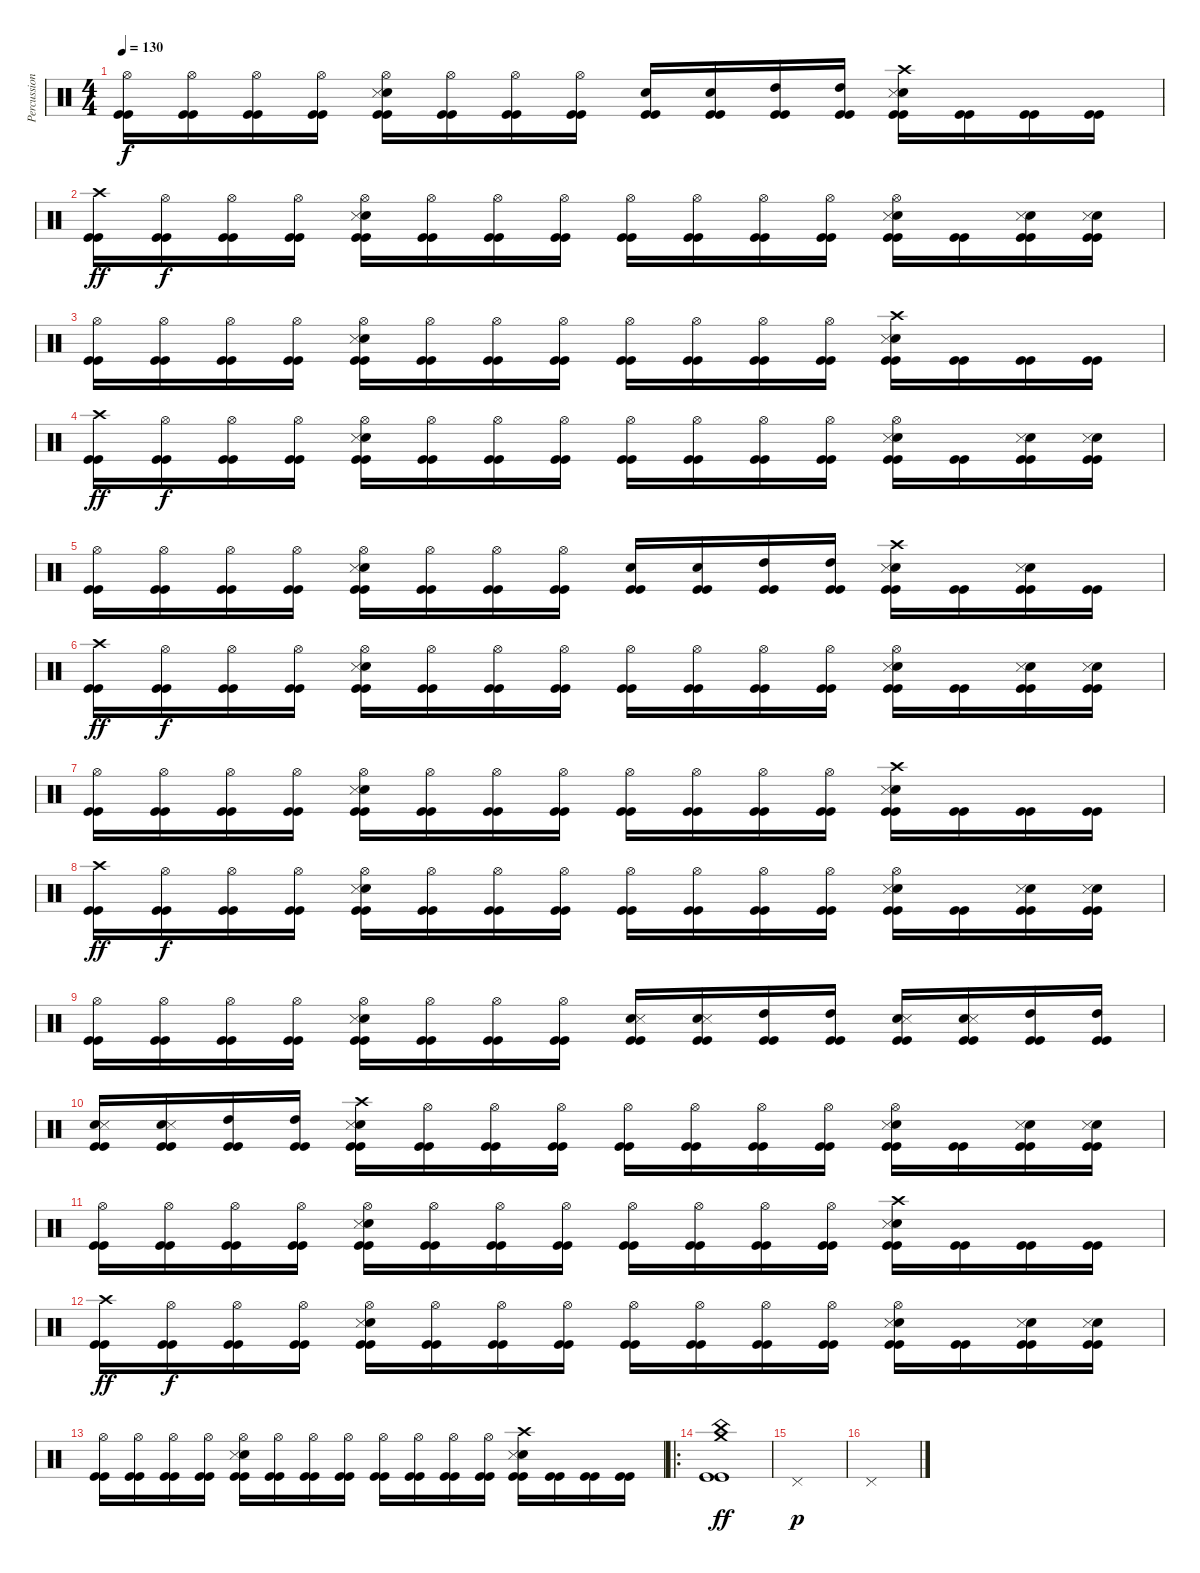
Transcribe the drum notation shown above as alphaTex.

\track ("Percussion" "Percussion") {instrument percussion}
\staff {score}
\articulation defaults
\ts (4 4)
\tempo 130
\clef neutral
\ks c
("Hi-Hat (open)" "Kick (hit)" "Kick (hit)").16{dy f} ("Hi-Hat (open)" "Kick (hit)" "Kick (hit)").16 ("Hi-Hat (open)" "Kick (hit)" "Kick (hit)").16 ("Hi-Hat (open)" "Kick (hit)" "Kick (hit)").16 ("Snare (hit) 2" "Snare (side stick) 3" "Hi-Hat (open)" "Kick (hit)" "Kick (hit)").16 ("Hi-Hat (open)" "Kick (hit)" "Kick (hit)").16 ("Hi-Hat (open)" "Kick (hit)" "Kick (hit)").16 ("Hi-Hat (open)" "Kick (hit)" "Kick (hit)").16 ("Snare (hit) 2" "Kick (hit)" "Kick (hit)").16 ("Snare (hit) 2" "Kick (hit)" "Kick (hit)").16 ("High Tom (hit)" "Kick (hit)" "Kick (hit)").16 ("High Tom (hit)" "Kick (hit)" "Kick (hit)").16 ("Snare (hit) 2" "Snare (side stick) 3" "Crash high (hit)" "Kick (hit)" "Kick (hit)").16 ("Kick (hit)" "Kick (hit)").16 ("Kick (hit)" "Kick (hit)").16 ("Kick (hit)" "Kick (hit)").16 |
("Crash high (hit)" "Kick (hit)" "Kick (hit)").16{dy ff} ("Hi-Hat (open)" "Kick (hit)" "Kick (hit)").16{dy f} ("Hi-Hat (open)" "Kick (hit)" "Kick (hit)").16 ("Hi-Hat (open)" "Kick (hit)" "Kick (hit)").16 ("Snare (hit) 2" "Snare (side stick) 3" "Hi-Hat (open)" "Kick (hit)" "Kick (hit)").16 ("Hi-Hat (open)" "Kick (hit)" "Kick (hit)").16 ("Hi-Hat (open)" "Kick (hit)" "Kick (hit)").16 ("Hi-Hat (open)" "Kick (hit)" "Kick (hit)").16 ("Hi-Hat (open)" "Kick (hit)" "Kick (hit)").16 ("Hi-Hat (open)" "Kick (hit)" "Kick (hit)").16 ("Hi-Hat (open)" "Kick (hit)" "Kick (hit)").16 ("Hi-Hat (open)" "Kick (hit)" "Kick (hit)").16 ("Snare (hit) 2" "Snare (side stick) 3" "Hi-Hat (open)" "Kick (hit)" "Kick (hit)").16 ("Kick (hit)" "Kick (hit)").16 ("Snare (hit) 2" "Snare (side stick) 3" "Kick (hit)" "Kick (hit)").16 ("Snare (hit) 2" "Snare (side stick) 3" "Kick (hit)" "Kick (hit)").16 |
("Hi-Hat (open)" "Kick (hit)" "Kick (hit)").16 ("Hi-Hat (open)" "Kick (hit)" "Kick (hit)").16 ("Hi-Hat (open)" "Kick (hit)" "Kick (hit)").16 ("Hi-Hat (open)" "Kick (hit)" "Kick (hit)").16 ("Snare (hit) 2" "Snare (side stick) 3" "Hi-Hat (open)" "Kick (hit)" "Kick (hit)").16 ("Hi-Hat (open)" "Kick (hit)" "Kick (hit)").16 ("Hi-Hat (open)" "Kick (hit)" "Kick (hit)").16 ("Hi-Hat (open)" "Kick (hit)" "Kick (hit)").16 ("Hi-Hat (open)" "Kick (hit)" "Kick (hit)").16 ("Hi-Hat (open)" "Kick (hit)" "Kick (hit)").16 ("Hi-Hat (open)" "Kick (hit)" "Kick (hit)").16 ("Hi-Hat (open)" "Kick (hit)" "Kick (hit)").16 ("Snare (hit) 2" "Snare (side stick) 3" "Crash high (hit)" "Kick (hit)" "Kick (hit)").16 ("Kick (hit)" "Kick (hit)").16 ("Kick (hit)" "Kick (hit)").16 ("Kick (hit)" "Kick (hit)").16 |
("Crash high (hit)" "Kick (hit)" "Kick (hit)").16{dy ff} ("Hi-Hat (open)" "Kick (hit)" "Kick (hit)").16{dy f} ("Hi-Hat (open)" "Kick (hit)" "Kick (hit)").16 ("Hi-Hat (open)" "Kick (hit)" "Kick (hit)").16 ("Snare (hit) 2" "Snare (side stick) 3" "Hi-Hat (open)" "Kick (hit)" "Kick (hit)").16 ("Hi-Hat (open)" "Kick (hit)" "Kick (hit)").16 ("Hi-Hat (open)" "Kick (hit)" "Kick (hit)").16 ("Hi-Hat (open)" "Kick (hit)" "Kick (hit)").16 ("Hi-Hat (open)" "Kick (hit)" "Kick (hit)").16 ("Hi-Hat (open)" "Kick (hit)" "Kick (hit)").16 ("Hi-Hat (open)" "Kick (hit)" "Kick (hit)").16 ("Hi-Hat (open)" "Kick (hit)" "Kick (hit)").16 ("Snare (hit) 2" "Snare (side stick) 3" "Hi-Hat (open)" "Kick (hit)" "Kick (hit)").16 ("Kick (hit)" "Kick (hit)").16 ("Snare (hit) 2" "Snare (side stick) 3" "Kick (hit)" "Kick (hit)").16 ("Snare (hit) 2" "Snare (side stick) 3" "Kick (hit)" "Kick (hit)").16 |
("Hi-Hat (open)" "Kick (hit)" "Kick (hit)").16 ("Hi-Hat (open)" "Kick (hit)" "Kick (hit)").16 ("Hi-Hat (open)" "Kick (hit)" "Kick (hit)").16 ("Hi-Hat (open)" "Kick (hit)" "Kick (hit)").16 ("Snare (hit) 2" "Snare (side stick) 3" "Hi-Hat (open)" "Kick (hit)" "Kick (hit)").16 ("Hi-Hat (open)" "Kick (hit)" "Kick (hit)").16 ("Hi-Hat (open)" "Kick (hit)" "Kick (hit)").16 ("Hi-Hat (open)" "Kick (hit)" "Kick (hit)").16 ("Snare (hit) 2" "Kick (hit)" "Kick (hit)").16 ("Snare (hit) 2" "Kick (hit)" "Kick (hit)").16 ("High Tom (hit)" "Kick (hit)" "Kick (hit)").16 ("High Tom (hit)" "Kick (hit)" "Kick (hit)").16 ("Snare (hit) 2" "Snare (side stick) 3" "Crash high (hit)" "Kick (hit)" "Kick (hit)").16 ("Kick (hit)" "Kick (hit)").16 ("Snare (hit) 2" "Snare (side stick) 3" "Kick (hit)" "Kick (hit)").16 ("Kick (hit)" "Kick (hit)").16 |
("Crash high (hit)" "Kick (hit)" "Kick (hit)").16{dy ff} ("Hi-Hat (open)" "Kick (hit)" "Kick (hit)").16{dy f} ("Hi-Hat (open)" "Kick (hit)" "Kick (hit)").16 ("Hi-Hat (open)" "Kick (hit)" "Kick (hit)").16 ("Snare (hit) 2" "Snare (side stick) 3" "Hi-Hat (open)" "Kick (hit)" "Kick (hit)").16 ("Hi-Hat (open)" "Kick (hit)" "Kick (hit)").16 ("Hi-Hat (open)" "Kick (hit)" "Kick (hit)").16 ("Hi-Hat (open)" "Kick (hit)" "Kick (hit)").16 ("Hi-Hat (open)" "Kick (hit)" "Kick (hit)").16 ("Hi-Hat (open)" "Kick (hit)" "Kick (hit)").16 ("Hi-Hat (open)" "Kick (hit)" "Kick (hit)").16 ("Hi-Hat (open)" "Kick (hit)" "Kick (hit)").16 ("Snare (hit) 2" "Snare (side stick) 3" "Hi-Hat (open)" "Kick (hit)" "Kick (hit)").16 ("Kick (hit)" "Kick (hit)").16 ("Snare (hit) 2" "Snare (side stick) 3" "Kick (hit)" "Kick (hit)").16 ("Snare (hit) 2" "Snare (side stick) 3" "Kick (hit)" "Kick (hit)").16 |
("Hi-Hat (open)" "Kick (hit)" "Kick (hit)").16 ("Hi-Hat (open)" "Kick (hit)" "Kick (hit)").16 ("Hi-Hat (open)" "Kick (hit)" "Kick (hit)").16 ("Hi-Hat (open)" "Kick (hit)" "Kick (hit)").16 ("Snare (hit) 2" "Snare (side stick) 3" "Hi-Hat (open)" "Kick (hit)" "Kick (hit)").16 ("Hi-Hat (open)" "Kick (hit)" "Kick (hit)").16 ("Hi-Hat (open)" "Kick (hit)" "Kick (hit)").16 ("Hi-Hat (open)" "Kick (hit)" "Kick (hit)").16 ("Hi-Hat (open)" "Kick (hit)" "Kick (hit)").16 ("Hi-Hat (open)" "Kick (hit)" "Kick (hit)").16 ("Hi-Hat (open)" "Kick (hit)" "Kick (hit)").16 ("Hi-Hat (open)" "Kick (hit)" "Kick (hit)").16 ("Snare (hit) 2" "Snare (side stick) 3" "Crash high (hit)" "Kick (hit)" "Kick (hit)").16 ("Kick (hit)" "Kick (hit)").16 ("Kick (hit)" "Kick (hit)").16 ("Kick (hit)" "Kick (hit)").16 |
("Crash high (hit)" "Kick (hit)" "Kick (hit)").16{dy ff} ("Hi-Hat (open)" "Kick (hit)" "Kick (hit)").16{dy f} ("Hi-Hat (open)" "Kick (hit)" "Kick (hit)").16 ("Hi-Hat (open)" "Kick (hit)" "Kick (hit)").16 ("Snare (hit) 2" "Snare (side stick) 3" "Hi-Hat (open)" "Kick (hit)" "Kick (hit)").16 ("Hi-Hat (open)" "Kick (hit)" "Kick (hit)").16 ("Hi-Hat (open)" "Kick (hit)" "Kick (hit)").16 ("Hi-Hat (open)" "Kick (hit)" "Kick (hit)").16 ("Hi-Hat (open)" "Kick (hit)" "Kick (hit)").16 ("Hi-Hat (open)" "Kick (hit)" "Kick (hit)").16 ("Hi-Hat (open)" "Kick (hit)" "Kick (hit)").16 ("Hi-Hat (open)" "Kick (hit)" "Kick (hit)").16 ("Snare (hit) 2" "Snare (side stick) 3" "Hi-Hat (open)" "Kick (hit)" "Kick (hit)").16 ("Kick (hit)" "Kick (hit)").16 ("Snare (hit) 2" "Snare (side stick) 3" "Kick (hit)" "Kick (hit)").16 ("Snare (hit) 2" "Snare (side stick) 3" "Kick (hit)" "Kick (hit)").16 |
("Hi-Hat (open)" "Kick (hit)" "Kick (hit)").16 ("Hi-Hat (open)" "Kick (hit)" "Kick (hit)").16 ("Hi-Hat (open)" "Kick (hit)" "Kick (hit)").16 ("Hi-Hat (open)" "Kick (hit)" "Kick (hit)").16 ("Snare (hit) 2" "Snare (side stick) 3" "Hi-Hat (open)" "Kick (hit)" "Kick (hit)").16 ("Hi-Hat (open)" "Kick (hit)" "Kick (hit)").16 ("Hi-Hat (open)" "Kick (hit)" "Kick (hit)").16 ("Hi-Hat (open)" "Kick (hit)" "Kick (hit)").16 ("Snare (hit) 2" "Snare (side stick) 3" "Kick (hit)" "Kick (hit)").16 ("Snare (hit) 2" "Snare (side stick) 3" "Kick (hit)" "Kick (hit)").16 ("High Tom (hit)" "Kick (hit)" "Kick (hit)").16 ("High Tom (hit)" "Kick (hit)" "Kick (hit)").16 ("Snare (hit) 2" "Snare (side stick) 3" "Kick (hit)" "Kick (hit)").16 ("Snare (hit) 2" "Snare (side stick) 3" "Kick (hit)" "Kick (hit)").16 ("High Tom (hit)" "Kick (hit)" "Kick (hit)").16 ("High Tom (hit)" "Kick (hit)" "Kick (hit)").16 |
("Snare (hit) 2" "Snare (side stick) 3" "Kick (hit)" "Kick (hit)").16 ("Snare (hit) 2" "Snare (side stick) 3" "Kick (hit)" "Kick (hit)").16 ("High Tom (hit)" "Kick (hit)" "Kick (hit)").16 ("High Tom (hit)" "Kick (hit)" "Kick (hit)").16 ("Snare (hit) 2" "Snare (side stick) 3" "Crash high (hit)" "Kick (hit)" "Kick (hit)").16 ("Hi-Hat (open)" "Kick (hit)" "Kick (hit)").16 ("Hi-Hat (open)" "Kick (hit)" "Kick (hit)").16 ("Hi-Hat (open)" "Kick (hit)" "Kick (hit)").16 ("Hi-Hat (open)" "Kick (hit)" "Kick (hit)").16 ("Hi-Hat (open)" "Kick (hit)" "Kick (hit)").16 ("Hi-Hat (open)" "Kick (hit)" "Kick (hit)").16 ("Hi-Hat (open)" "Kick (hit)" "Kick (hit)").16 ("Snare (hit) 2" "Snare (side stick) 3" "Hi-Hat (open)" "Kick (hit)" "Kick (hit)").16 ("Kick (hit)" "Kick (hit)").16 ("Snare (hit) 2" "Snare (side stick) 3" "Kick (hit)" "Kick (hit)").16 ("Snare (hit) 2" "Snare (side stick) 3" "Kick (hit)" "Kick (hit)").16 |
("Hi-Hat (open)" "Kick (hit)" "Kick (hit)").16 ("Hi-Hat (open)" "Kick (hit)" "Kick (hit)").16 ("Hi-Hat (open)" "Kick (hit)" "Kick (hit)").16 ("Hi-Hat (open)" "Kick (hit)" "Kick (hit)").16 ("Snare (hit) 2" "Snare (side stick) 3" "Hi-Hat (open)" "Kick (hit)" "Kick (hit)").16 ("Hi-Hat (open)" "Kick (hit)" "Kick (hit)").16 ("Hi-Hat (open)" "Kick (hit)" "Kick (hit)").16 ("Hi-Hat (open)" "Kick (hit)" "Kick (hit)").16 ("Hi-Hat (open)" "Kick (hit)" "Kick (hit)").16 ("Hi-Hat (open)" "Kick (hit)" "Kick (hit)").16 ("Hi-Hat (open)" "Kick (hit)" "Kick (hit)").16 ("Hi-Hat (open)" "Kick (hit)" "Kick (hit)").16 ("Snare (hit) 2" "Snare (side stick) 3" "Crash high (hit)" "Kick (hit)" "Kick (hit)").16 ("Kick (hit)" "Kick (hit)").16 ("Kick (hit)" "Kick (hit)").16 ("Kick (hit)" "Kick (hit)").16 |
("Crash high (hit)" "Kick (hit)" "Kick (hit)").16{dy ff} ("Hi-Hat (open)" "Kick (hit)" "Kick (hit)").16{dy f} ("Hi-Hat (open)" "Kick (hit)" "Kick (hit)").16 ("Hi-Hat (open)" "Kick (hit)" "Kick (hit)").16 ("Snare (hit) 2" "Snare (side stick) 3" "Hi-Hat (open)" "Kick (hit)" "Kick (hit)").16 ("Hi-Hat (open)" "Kick (hit)" "Kick (hit)").16 ("Hi-Hat (open)" "Kick (hit)" "Kick (hit)").16 ("Hi-Hat (open)" "Kick (hit)" "Kick (hit)").16 ("Hi-Hat (open)" "Kick (hit)" "Kick (hit)").16 ("Hi-Hat (open)" "Kick (hit)" "Kick (hit)").16 ("Hi-Hat (open)" "Kick (hit)" "Kick (hit)").16 ("Hi-Hat (open)" "Kick (hit)" "Kick (hit)").16 ("Snare (hit) 2" "Snare (side stick) 3" "Hi-Hat (open)" "Kick (hit)" "Kick (hit)").16 ("Kick (hit)" "Kick (hit)").16 ("Snare (hit) 2" "Snare (side stick) 3" "Kick (hit)" "Kick (hit)").16 ("Snare (hit) 2" "Snare (side stick) 3" "Kick (hit)" "Kick (hit)").16 |
("Hi-Hat (open)" "Kick (hit)" "Kick (hit)").16 ("Hi-Hat (open)" "Kick (hit)" "Kick (hit)").16 ("Hi-Hat (open)" "Kick (hit)" "Kick (hit)").16 ("Hi-Hat (open)" "Kick (hit)" "Kick (hit)").16 ("Snare (hit) 2" "Snare (side stick) 3" "Hi-Hat (open)" "Kick (hit)" "Kick (hit)").16 ("Hi-Hat (open)" "Kick (hit)" "Kick (hit)").16 ("Hi-Hat (open)" "Kick (hit)" "Kick (hit)").16 ("Hi-Hat (open)" "Kick (hit)" "Kick (hit)").16 ("Hi-Hat (open)" "Kick (hit)" "Kick (hit)").16 ("Hi-Hat (open)" "Kick (hit)" "Kick (hit)").16 ("Hi-Hat (open)" "Kick (hit)" "Kick (hit)").16 ("Hi-Hat (open)" "Kick (hit)" "Kick (hit)").16 ("Snare (hit) 2" "Snare (side stick) 3" "Crash high (hit)" "Kick (hit)" "Kick (hit)").16 ("Kick (hit)" "Kick (hit)").16 ("Kick (hit)" "Kick (hit)").16 ("Kick (hit)" "Kick (hit)").16 |
\ro
("Crash medium (hit)" "China (hit)" "Kick (hit)" "Kick (hit)").1{dy ff} |
"Pedal Hi-Hat (hit)".1{dy p} |
"Pedal Hi-Hat (hit)".1
